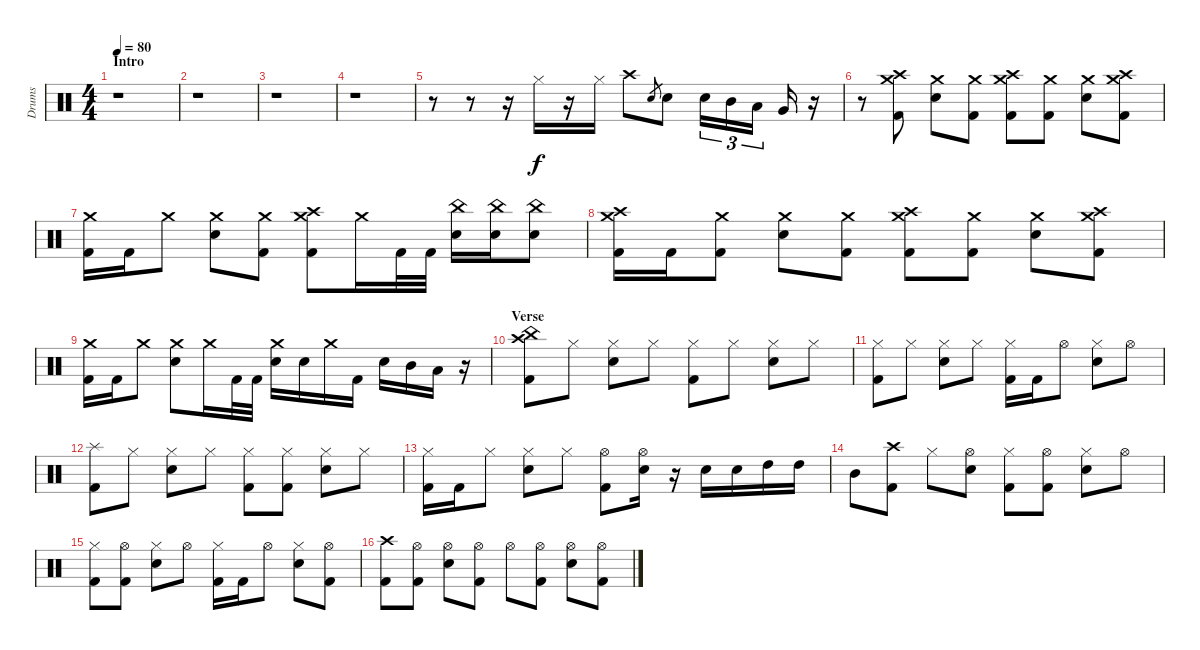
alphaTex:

\track ("Drums" "Drums") {instrument percussion}
\staff {score}
\articulation defaults
\ts (4 4)
\section ("" "Intro")
\tempo 80
\clef neutral
\ks c
r.1{dy f} |
r.1 |
r.1 |
r.1 |
r.8 r.8 r.16 "Hi-Hat (closed)".16 r.16 "Hi-Hat (closed)".16 "Crash high (hit)".8 "Electric Snare (hit)".8{gr} "Electric Snare (hit)".8 "Electric Snare (hit)".16{tu (3 2)} "Mid Tom (hit)".16{tu (3 2)} "Low Tom (hit)".16{tu (3 2)} "Very Low Tom (hit)".16 r.16 |
r.8 ("Crash high (hit)" "Crash medium (hit)" "Kick (hit) 2").8 ("Crash medium (hit)" "Electric Snare (hit)").8 ("Crash medium (hit)" "Kick (hit) 2").8 ("Crash medium (hit)" "Crash high (hit)" "Kick (hit) 2").8 ("Crash medium (hit)" "Kick (hit) 2").8 ("Crash medium (hit)" "Electric Snare (hit)").8 ("Crash medium (hit)" "Crash high (hit)" "Kick (hit) 2").8 |
("Crash medium (hit)" "Kick (hit) 2").16 "Kick (hit) 2".16 "Crash medium (hit)".8 ("Crash medium (hit)" "Electric Snare (hit)").8 ("Crash medium (hit)" "Kick (hit) 2").8 ("Crash medium (hit)" "Crash high (hit)" "Kick (hit) 2").8 "Crash medium (hit)".16 "Kick (hit) 2".32 "Kick (hit) 2".32 ("China (hit)" "Electric Snare (hit)").16 ("China (hit)" "Electric Snare (hit)").16 ("China (hit)" "Electric Snare (hit)").8 |
("Crash medium (hit)" "Crash high (hit)" "Kick (hit) 2").16 "Kick (hit) 2".16 ("Crash medium (hit)" "Kick (hit) 2").8 ("Crash medium (hit)" "Electric Snare (hit)").8 ("Crash medium (hit)" "Kick (hit) 2").8 ("Crash medium (hit)" "Crash high (hit)" "Kick (hit) 2").8 ("Crash medium (hit)" "Kick (hit) 2").8 ("Crash medium (hit)" "Electric Snare (hit)").8 ("Crash medium (hit)" "Crash high (hit)" "Kick (hit) 2").8 |
("Crash medium (hit)" "Kick (hit) 2").16 "Kick (hit) 2".16 "Crash medium (hit)".8 ("Crash medium (hit)" "Electric Snare (hit)").8 "Crash medium (hit)".16 "Kick (hit) 2".32 "Kick (hit) 2".32 ("Crash medium (hit)" "Electric Snare (hit)").16 "Electric Snare (hit)".16 "Crash medium (hit)".16 "Kick (hit) 2".16 "Electric Snare (hit)".16 "Mid Tom (hit)".16 "Low Tom (hit)".16 r.16 |
\section ("" "Verse")
("Crash high (hit)" "China (hit)" "Kick (hit) 2").8 "Hi-Hat (closed)".8 ("Hi-Hat (closed)" "Electric Snare (hit)").8 "Hi-Hat (closed)".8 ("Hi-Hat (closed)" "Kick (hit) 2").8 "Hi-Hat (closed)".8 ("Hi-Hat (closed)" "Electric Snare (hit)").8 "Hi-Hat (closed)".8 |
("Hi-Hat (closed)" "Kick (hit) 2").8 "Hi-Hat (closed)".8 ("Hi-Hat (closed)" "Electric Snare (hit)").8 "Hi-Hat (closed)".8 ("Hi-Hat (closed)" "Kick (hit) 2").16 "Kick (hit) 2".16 "Hi-Hat (open)".8 ("Hi-Hat (closed)" "Electric Snare (hit)").8 "Hi-Hat (open)".8 |
("Splash (hit)" "Kick (hit) 2").8 "Hi-Hat (closed)".8 ("Hi-Hat (closed)" "Electric Snare (hit)").8 "Hi-Hat (closed)".8 ("Hi-Hat (closed)" "Kick (hit) 2").8 ("Hi-Hat (closed)" "Kick (hit) 2").8 ("Hi-Hat (closed)" "Electric Snare (hit)").8 "Hi-Hat (closed)".8 |
("Hi-Hat (closed)" "Kick (hit) 2").16 "Kick (hit) 2".16 "Hi-Hat (closed)".8 ("Hi-Hat (closed)" "Electric Snare (hit)").8 "Hi-Hat (closed)".8 ("Hi-Hat (open)" "Kick (hit) 2").8 ("Hi-Hat (open)" "Electric Snare (hit)").16 r.16 "Electric Snare (hit)".16 "Electric Snare (hit)".16 "High Tom (hit)".16 "High Tom (hit)".16 |
"Mid Tom (hit)".8 ("Crash high (hit)" "Kick (hit) 2").8 "Hi-Hat (closed)".8 ("Hi-Hat (open)" "Electric Snare (hit)").8 ("Hi-Hat (closed)" "Kick (hit) 2").8 ("Hi-Hat (open)" "Kick (hit) 2").8 ("Hi-Hat (closed)" "Electric Snare (hit)").8 "Hi-Hat (open)".8 |
("Hi-Hat (closed)" "Kick (hit) 2").8 ("Hi-Hat (open)" "Kick (hit) 2").8 ("Hi-Hat (closed)" "Electric Snare (hit)").8 "Hi-Hat (open)".8 ("Hi-Hat (closed)" "Kick (hit) 2").16 "Kick (hit) 2".16 "Hi-Hat (open)".8 ("Hi-Hat (closed)" "Electric Snare (hit)").8 ("Hi-Hat (open)" "Kick (hit) 2").8 |
("Crash high (hit)" "Kick (hit) 2").8 ("Hi-Hat (open)" "Kick (hit) 2").8 ("Hi-Hat (open)" "Electric Snare (hit)").8 ("Hi-Hat (open)" "Kick (hit) 2").8 "Hi-Hat (open)".8 ("Hi-Hat (open)" "Kick (hit) 2").8 ("Hi-Hat (open)" "Electric Snare (hit)").8 ("Hi-Hat (open)" "Kick (hit) 2").8
